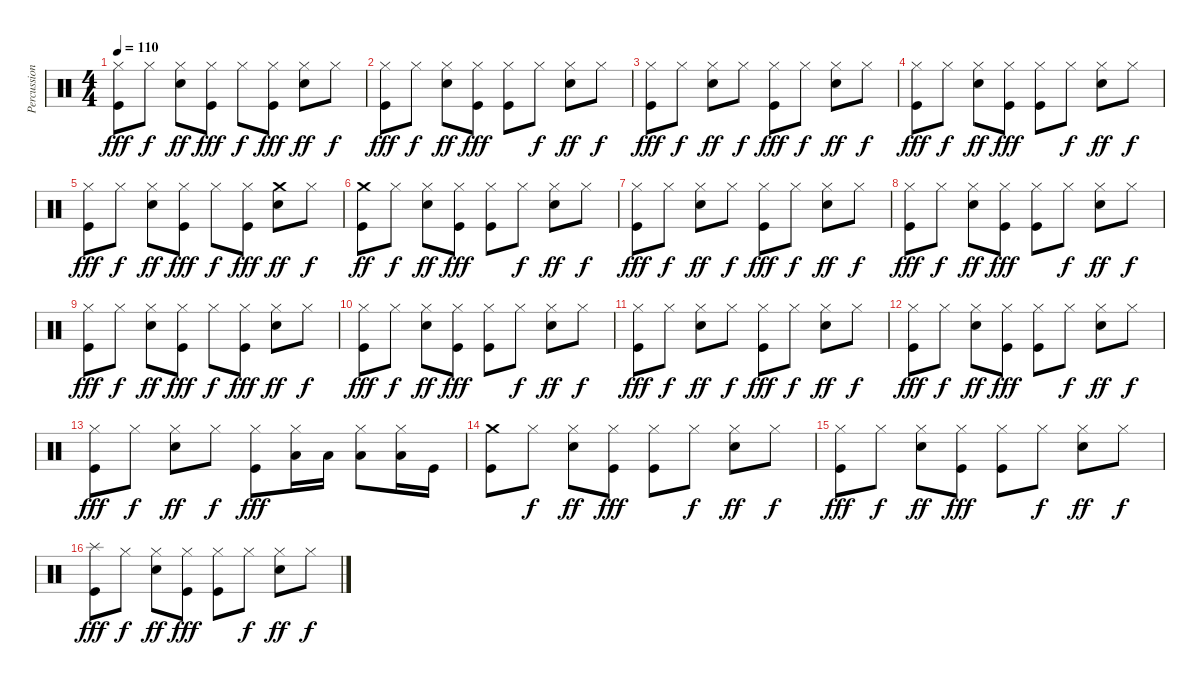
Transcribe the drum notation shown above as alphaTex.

\track ("Percussion" "Percussion") {instrument percussion}
\staff {score}
\articulation defaults
\ts (4 4)
\tempo 110
\clef neutral
\ks c
("Kick (hit)" "Hi-Hat (closed)").8{dy fff} "Hi-Hat (closed)".8{dy f} ("Snare (hit) 2" "Hi-Hat (closed)").8{dy ff} ("Kick (hit)" "Hi-Hat (closed)").8{dy fff} "Hi-Hat (closed)".8{dy f} ("Kick (hit)" "Hi-Hat (closed)").8{dy fff} ("Snare (hit) 2" "Hi-Hat (closed)").8{dy ff} "Hi-Hat (closed)".8{dy f} |
("Kick (hit)" "Hi-Hat (closed)").8{dy fff} "Hi-Hat (closed)".8{dy f} ("Snare (hit) 2" "Hi-Hat (closed)").8{dy ff} ("Kick (hit)" "Hi-Hat (closed)").8{dy fff} ("Kick (hit)" "Hi-Hat (closed)").8 "Hi-Hat (closed)".8{dy f} ("Snare (hit) 2" "Hi-Hat (closed)").8{dy ff} "Hi-Hat (closed)".8{dy f} |
("Kick (hit)" "Hi-Hat (closed)").8{dy fff} "Hi-Hat (closed)".8{dy f} ("Snare (hit) 2" "Hi-Hat (closed)").8{dy ff} "Hi-Hat (closed)".8{dy f} ("Kick (hit)" "Hi-Hat (closed)").8{dy fff} "Hi-Hat (closed)".8{dy f} ("Snare (hit) 2" "Hi-Hat (closed)").8{dy ff} "Hi-Hat (closed)".8{dy f} |
("Kick (hit)" "Hi-Hat (closed)").8{dy fff} "Hi-Hat (closed)".8{dy f} ("Snare (hit) 2" "Hi-Hat (closed)").8{dy ff} ("Kick (hit)" "Hi-Hat (closed)").8{dy fff} ("Kick (hit)" "Hi-Hat (closed)").8 "Hi-Hat (closed)".8{dy f} ("Snare (hit) 2" "Hi-Hat (closed)").8{dy ff} "Hi-Hat (closed)".8{dy f} |
("Kick (hit)" "Hi-Hat (closed)").8{dy fff} "Hi-Hat (closed)".8{dy f} ("Snare (hit) 2" "Hi-Hat (closed)").8{dy ff} ("Kick (hit)" "Hi-Hat (closed)").8{dy fff} "Hi-Hat (closed)".8{dy f} ("Kick (hit)" "Hi-Hat (closed)").8{dy fff} ("Snare (hit) 2" "Crash medium (hit)").8{dy ff} "Hi-Hat (closed)".8{dy f} |
("Kick (hit)" "Crash medium (hit)").8{dy ff} "Hi-Hat (closed)".8{dy f} ("Snare (hit) 2" "Hi-Hat (closed)").8{dy ff} ("Kick (hit)" "Hi-Hat (closed)").8{dy fff} ("Kick (hit)" "Hi-Hat (closed)").8 "Hi-Hat (closed)".8{dy f} ("Snare (hit) 2" "Hi-Hat (closed)").8{dy ff} "Hi-Hat (closed)".8{dy f} |
("Kick (hit)" "Hi-Hat (closed)").8{dy fff} "Hi-Hat (closed)".8{dy f} ("Snare (hit) 2" "Hi-Hat (closed)").8{dy ff} "Hi-Hat (closed)".8{dy f} ("Kick (hit)" "Hi-Hat (closed)").8{dy fff} "Hi-Hat (closed)".8{dy f} ("Snare (hit) 2" "Hi-Hat (closed)").8{dy ff} "Hi-Hat (closed)".8{dy f} |
("Kick (hit)" "Hi-Hat (closed)").8{dy fff} "Hi-Hat (closed)".8{dy f} ("Snare (hit) 2" "Hi-Hat (closed)").8{dy ff} ("Kick (hit)" "Hi-Hat (closed)").8{dy fff} ("Kick (hit)" "Hi-Hat (closed)").8 "Hi-Hat (closed)".8{dy f} ("Snare (hit) 2" "Hi-Hat (closed)").8{dy ff} "Hi-Hat (closed)".8{dy f} |
("Kick (hit)" "Hi-Hat (closed)").8{dy fff} "Hi-Hat (closed)".8{dy f} ("Snare (hit) 2" "Hi-Hat (closed)").8{dy ff} ("Kick (hit)" "Hi-Hat (closed)").8{dy fff} "Hi-Hat (closed)".8{dy f} ("Kick (hit)" "Hi-Hat (closed)").8{dy fff} ("Snare (hit) 2" "Hi-Hat (closed)").8{dy ff} "Hi-Hat (closed)".8{dy f} |
("Kick (hit)" "Hi-Hat (closed)").8{dy fff} "Hi-Hat (closed)".8{dy f} ("Snare (hit) 2" "Hi-Hat (closed)").8{dy ff} ("Kick (hit)" "Hi-Hat (closed)").8{dy fff} ("Kick (hit)" "Hi-Hat (closed)").8 "Hi-Hat (closed)".8{dy f} ("Snare (hit) 2" "Hi-Hat (closed)").8{dy ff} "Hi-Hat (closed)".8{dy f} |
("Kick (hit)" "Hi-Hat (closed)").8{dy fff} "Hi-Hat (closed)".8{dy f} ("Snare (hit) 2" "Hi-Hat (closed)").8{dy ff} "Hi-Hat (closed)".8{dy f} ("Kick (hit)" "Hi-Hat (closed)").8{dy fff} "Hi-Hat (closed)".8{dy f} ("Snare (hit) 2" "Hi-Hat (closed)").8{dy ff} "Hi-Hat (closed)".8{dy f} |
("Kick (hit)" "Hi-Hat (closed)").8{dy fff} "Hi-Hat (closed)".8{dy f} ("Snare (hit) 2" "Hi-Hat (closed)").8{dy ff} ("Kick (hit)" "Hi-Hat (closed)").8{dy fff} ("Kick (hit)" "Hi-Hat (closed)").8 "Hi-Hat (closed)".8{dy f} ("Snare (hit) 2" "Hi-Hat (closed)").8{dy ff} "Hi-Hat (closed)".8{dy f} |
("Kick (hit)" "Hi-Hat (closed)").8{dy fff} "Hi-Hat (closed)".8{dy f} ("Snare (hit) 2" "Hi-Hat (closed)").8{dy ff} "Hi-Hat (closed)".8{dy f} ("Kick (hit)" "Hi-Hat (closed)").8{dy fff} ("Low Tom (hit)" "Hi-Hat (closed)").16 "Low Tom (hit)".16 ("Low Tom (hit)" "Hi-Hat (closed)").8 ("Low Tom (hit)" "Hi-Hat (closed)").16 "Kick (hit)".16 |
("Kick (hit)" "Crash medium (hit)").8 "Hi-Hat (closed)".8{dy f} ("Snare (hit) 2" "Hi-Hat (closed)").8{dy ff} ("Kick (hit)" "Hi-Hat (closed)").8{dy fff} ("Kick (hit)" "Hi-Hat (closed)").8 "Hi-Hat (closed)".8{dy f} ("Snare (hit) 2" "Hi-Hat (closed)").8{dy ff} "Hi-Hat (closed)".8{dy f} |
("Kick (hit)" "Hi-Hat (closed)").8{dy fff} "Hi-Hat (closed)".8{dy f} ("Snare (hit) 2" "Hi-Hat (closed)").8{dy ff} ("Kick (hit)" "Hi-Hat (closed)").8{dy fff} ("Kick (hit)" "Hi-Hat (closed)").8 "Hi-Hat (closed)".8{dy f} ("Snare (hit) 2" "Hi-Hat (closed)").8{dy ff} "Hi-Hat (closed)".8{dy f} |
("Kick (hit)" "Splash (hit)").8{dy fff} "Hi-Hat (closed)".8{dy f} ("Snare (hit) 2" "Hi-Hat (closed)").8{dy ff} ("Kick (hit)" "Hi-Hat (closed)").8{dy fff} ("Kick (hit)" "Hi-Hat (closed)").8 "Hi-Hat (closed)".8{dy f} ("Snare (hit) 2" "Hi-Hat (closed)").8{dy ff} "Hi-Hat (closed)".8{dy f}
